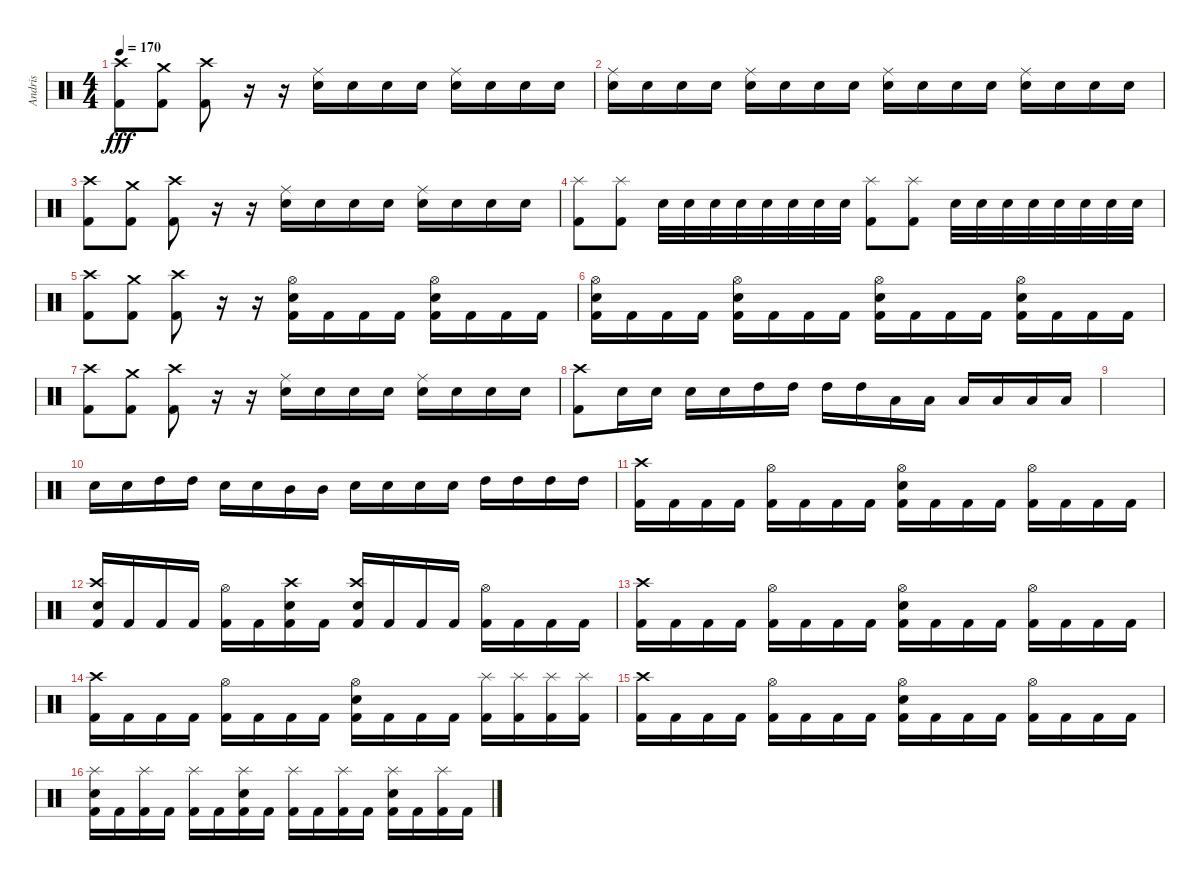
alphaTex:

\track ("Andris" "Andris") {instrument percussion}
\staff {score}
\articulation defaults
\ts (4 4)
\tempo 170
\clef neutral
\ks c
("Kick (hit) 2" "Crash high (hit)").8{dy fff} ("Kick (hit) 2" "Crash medium (hit)").8 ("Kick (hit) 2" "Crash high (hit)").8 r.16 r.16 ("Ride (middle)" "Electric Snare (hit)").16 "Electric Snare (hit)".16 "Electric Snare (hit)".16 "Electric Snare (hit)".16 ("Ride (middle)" "Electric Snare (hit)").16 "Electric Snare (hit)".16 "Electric Snare (hit)".16 "Electric Snare (hit)".16 |
("Ride (middle)" "Electric Snare (hit)").16 "Electric Snare (hit)".16 "Electric Snare (hit)".16 "Electric Snare (hit)".16 ("Ride (middle)" "Electric Snare (hit)").16 "Electric Snare (hit)".16 "Electric Snare (hit)".16 "Electric Snare (hit)".16 ("Ride (middle)" "Electric Snare (hit)").16 "Electric Snare (hit)".16 "Electric Snare (hit)".16 "Electric Snare (hit)".16 ("Ride (middle)" "Electric Snare (hit)").16 "Electric Snare (hit)".16 "Electric Snare (hit)".16 "Electric Snare (hit)".16 |
("Kick (hit) 2" "Crash high (hit)").8 ("Kick (hit) 2" "Crash medium (hit)").8 ("Kick (hit) 2" "Crash high (hit)").8 r.16 r.16 ("Ride (middle)" "Electric Snare (hit)").16 "Electric Snare (hit)".16 "Electric Snare (hit)".16 "Electric Snare (hit)".16 ("Ride (middle)" "Electric Snare (hit)").16 "Electric Snare (hit)".16 "Electric Snare (hit)".16 "Electric Snare (hit)".16 |
("Splash (hit)" "Kick (hit) 2").8 ("Splash (hit)" "Kick (hit) 2").8 "Electric Snare (hit)".32 "Electric Snare (hit)".32 "Electric Snare (hit)".32 "Electric Snare (hit)".32 "Electric Snare (hit)".32 "Electric Snare (hit)".32 "Electric Snare (hit)".32 "Electric Snare (hit)".32 ("Splash (hit)" "Kick (hit) 2").8 ("Splash (hit)" "Kick (hit) 2").8 "Electric Snare (hit)".32 "Electric Snare (hit)".32 "Electric Snare (hit)".32 "Electric Snare (hit)".32 "Electric Snare (hit)".32 "Electric Snare (hit)".32 "Electric Snare (hit)".32 "Electric Snare (hit)".32 |
("Crash high (hit)" "Kick (hit) 2").8 ("Crash medium (hit)" "Kick (hit) 2").8 ("Crash high (hit)" "Kick (hit) 2").8 r.16 r.16 ("Hi-Hat (open)" "Kick (hit) 2" "Electric Snare (hit)").16 "Kick (hit) 2".16 "Kick (hit) 2".16 "Kick (hit) 2".16 ("Hi-Hat (open)" "Electric Snare (hit)" "Kick (hit) 2").16 "Kick (hit) 2".16 "Kick (hit) 2".16 "Kick (hit) 2".16 |
("Hi-Hat (open)" "Kick (hit) 2" "Electric Snare (hit)").16 "Kick (hit) 2".16 "Kick (hit) 2".16 "Kick (hit) 2".16 ("Hi-Hat (open)" "Electric Snare (hit)" "Kick (hit) 2").16 "Kick (hit) 2".16 "Kick (hit) 2".16 "Kick (hit) 2".16 ("Hi-Hat (open)" "Kick (hit) 2" "Electric Snare (hit)").16 "Kick (hit) 2".16 "Kick (hit) 2".16 "Kick (hit) 2".16 ("Hi-Hat (open)" "Electric Snare (hit)" "Kick (hit) 2").16 "Kick (hit) 2".16 "Kick (hit) 2".16 "Kick (hit) 2".16 |
("Kick (hit) 2" "Crash high (hit)").8 ("Kick (hit) 2" "Crash medium (hit)").8 ("Kick (hit) 2" "Crash high (hit)").8 r.16 r.16 ("Ride (middle)" "Electric Snare (hit)").16 "Electric Snare (hit)".16 "Electric Snare (hit)".16 "Electric Snare (hit)".16 ("Ride (middle)" "Electric Snare (hit)").16 "Electric Snare (hit)".16 "Electric Snare (hit)".16 "Electric Snare (hit)".16 |
("Crash high (hit)" "Kick (hit) 2").8 "Electric Snare (hit)".16 "Electric Snare (hit)".16 "Electric Snare (hit)".16 "Electric Snare (hit)".16 "High Tom (hit)".16 "High Tom (hit)".16 "High Tom (hit)".16 "High Tom (hit)".16 "Low Tom (hit)".16 "Low Tom (hit)".16 "Low Tom (hit)".16 "Low Tom (hit)".16 "Low Tom (hit)".16 "Low Tom (hit)".16 |
|
"Electric Snare (hit)".16 "Electric Snare (hit)".16 "High Tom (hit)".16 "High Tom (hit)".16 "Electric Snare (hit)".16 "Electric Snare (hit)".16 "Mid Tom (hit)".16 "Mid Tom (hit)".16 "Electric Snare (hit)".16 "Electric Snare (hit)".16 "Electric Snare (hit)".16 "Electric Snare (hit)".16 "High Tom (hit)".16 "High Tom (hit)".16 "High Tom (hit)".16 "High Tom (hit)".16 |
("Kick (hit) 2" "Crash high (hit)").16 "Kick (hit) 2".16 "Kick (hit) 2".16 "Kick (hit) 2".16 ("Hi-Hat (open)" "Kick (hit) 2").16 "Kick (hit) 2".16 "Kick (hit) 2".16 "Kick (hit) 2".16 ("Hi-Hat (open)" "Electric Snare (hit)" "Kick (hit) 2").16 "Kick (hit) 2".16 "Kick (hit) 2".16 "Kick (hit) 2".16 ("Hi-Hat (open)" "Kick (hit) 2").16 "Kick (hit) 2".16 "Kick (hit) 2".16 "Kick (hit) 2".16 |
("Crash high (hit)" "Kick (hit) 2" "Electric Snare (hit)").16 "Kick (hit) 2".16 "Kick (hit) 2".16 "Kick (hit) 2".16 ("Hi-Hat (open)" "Kick (hit) 2").16 "Kick (hit) 2".16 ("Crash high (hit)" "Kick (hit) 2" "Electric Snare (hit)").16 "Kick (hit) 2".16 ("Crash high (hit)" "Kick (hit) 2" "Electric Snare (hit)").16 "Kick (hit) 2".16 "Kick (hit) 2".16 "Kick (hit) 2".16 ("Hi-Hat (open)" "Kick (hit) 2").16 "Kick (hit) 2".16 "Kick (hit) 2".16 "Kick (hit) 2".16 |
("Kick (hit) 2" "Crash high (hit)").16 "Kick (hit) 2".16 "Kick (hit) 2".16 "Kick (hit) 2".16 ("Hi-Hat (open)" "Kick (hit) 2").16 "Kick (hit) 2".16 "Kick (hit) 2".16 "Kick (hit) 2".16 ("Hi-Hat (open)" "Electric Snare (hit)" "Kick (hit) 2").16 "Kick (hit) 2".16 "Kick (hit) 2".16 "Kick (hit) 2".16 ("Hi-Hat (open)" "Kick (hit) 2").16 "Kick (hit) 2".16 "Kick (hit) 2".16 "Kick (hit) 2".16 |
("Kick (hit) 2" "Crash high (hit)").16 "Kick (hit) 2".16 "Kick (hit) 2".16 "Kick (hit) 2".16 ("Hi-Hat (open)" "Kick (hit) 2").16 "Kick (hit) 2".16 "Kick (hit) 2".16 "Kick (hit) 2".16 ("Hi-Hat (open)" "Electric Snare (hit)" "Kick (hit) 2").16 "Kick (hit) 2".16 "Kick (hit) 2".16 "Kick (hit) 2".16 ("Splash (hit)" "Kick (hit) 2").16 ("Splash (hit)" "Kick (hit) 2").16 ("Splash (hit)" "Kick (hit) 2").16 ("Splash (hit)" "Kick (hit) 2").16 |
("Kick (hit) 2" "Crash high (hit)").16 "Kick (hit) 2".16 "Kick (hit) 2".16 "Kick (hit) 2".16 ("Hi-Hat (open)" "Kick (hit) 2").16 "Kick (hit) 2".16 "Kick (hit) 2".16 "Kick (hit) 2".16 ("Hi-Hat (open)" "Electric Snare (hit)" "Kick (hit) 2").16 "Kick (hit) 2".16 "Kick (hit) 2".16 "Kick (hit) 2".16 ("Hi-Hat (open)" "Kick (hit) 2").16 "Kick (hit) 2".16 "Kick (hit) 2".16 "Kick (hit) 2".16 |
("Splash (hit)" "Electric Snare (hit)" "Kick (hit) 2").16 "Kick (hit) 2".16 ("Splash (hit)" "Kick (hit) 2").16 "Kick (hit) 2".16 ("Splash (hit)" "Kick (hit) 2").16 "Kick (hit) 2".16 ("Splash (hit)" "Electric Snare (hit)" "Kick (hit) 2").16 "Kick (hit) 2".16 ("Splash (hit)" "Kick (hit) 2").16 "Kick (hit) 2".16 ("Splash (hit)" "Kick (hit) 2").16 "Kick (hit) 2".16 ("Splash (hit)" "Electric Snare (hit)" "Kick (hit) 2").16 "Kick (hit) 2".16 ("Splash (hit)" "Kick (hit) 2").16 "Kick (hit) 2".16
